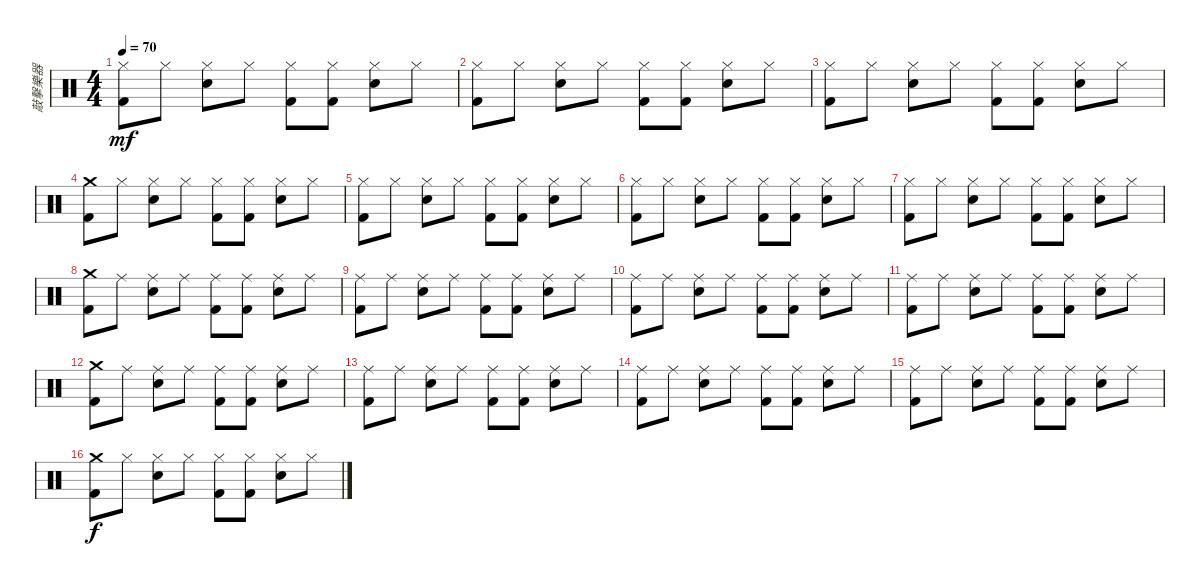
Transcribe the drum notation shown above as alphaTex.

\track ("敲擊樂器" "敲擊樂器") {instrument percussion}
\staff {score}
\articulation defaults
\ts (4 4)
\tempo 70
\clef neutral
\ks c
("Hi-Hat (closed)" "Kick (hit) 2").8{dy mf} "Hi-Hat (closed)".8 ("Hi-Hat (closed)" "Snare (hit) 2").8 "Hi-Hat (closed)".8 ("Hi-Hat (closed)" "Kick (hit) 2").8 ("Hi-Hat (closed)" "Kick (hit) 2").8 ("Hi-Hat (closed)" "Snare (hit) 2").8 "Hi-Hat (closed)".8 |
("Hi-Hat (closed)" "Kick (hit) 2").8 "Hi-Hat (closed)".8 ("Hi-Hat (closed)" "Snare (hit) 2").8 "Hi-Hat (closed)".8 ("Hi-Hat (closed)" "Kick (hit) 2").8 ("Hi-Hat (closed)" "Kick (hit) 2").8 ("Hi-Hat (closed)" "Snare (hit) 2").8 "Hi-Hat (closed)".8 |
("Hi-Hat (closed)" "Kick (hit) 2").8 "Hi-Hat (closed)".8 ("Hi-Hat (closed)" "Snare (hit) 2").8 "Hi-Hat (closed)".8 ("Hi-Hat (closed)" "Kick (hit) 2").8 ("Hi-Hat (closed)" "Kick (hit) 2").8 ("Hi-Hat (closed)" "Snare (hit) 2").8 "Hi-Hat (closed)".8 |
("Crash medium (hit)" "Kick (hit) 2").8 "Hi-Hat (closed)".8 ("Hi-Hat (closed)" "Snare (hit) 2").8 "Hi-Hat (closed)".8 ("Hi-Hat (closed)" "Kick (hit) 2").8 ("Hi-Hat (closed)" "Kick (hit) 2").8 ("Hi-Hat (closed)" "Snare (hit) 2").8 "Hi-Hat (closed)".8 |
("Hi-Hat (closed)" "Kick (hit) 2").8 "Hi-Hat (closed)".8 ("Hi-Hat (closed)" "Snare (hit) 2").8 "Hi-Hat (closed)".8 ("Hi-Hat (closed)" "Kick (hit) 2").8 ("Hi-Hat (closed)" "Kick (hit) 2").8 ("Hi-Hat (closed)" "Snare (hit) 2").8 "Hi-Hat (closed)".8 |
("Hi-Hat (closed)" "Kick (hit) 2").8 "Hi-Hat (closed)".8 ("Hi-Hat (closed)" "Snare (hit) 2").8 "Hi-Hat (closed)".8 ("Hi-Hat (closed)" "Kick (hit) 2").8 ("Hi-Hat (closed)" "Kick (hit) 2").8 ("Hi-Hat (closed)" "Snare (hit) 2").8 "Hi-Hat (closed)".8 |
("Hi-Hat (closed)" "Kick (hit) 2").8 "Hi-Hat (closed)".8 ("Hi-Hat (closed)" "Snare (hit) 2").8 "Hi-Hat (closed)".8 ("Hi-Hat (closed)" "Kick (hit) 2").8 ("Hi-Hat (closed)" "Kick (hit) 2").8 ("Hi-Hat (closed)" "Snare (hit) 2").8 "Hi-Hat (closed)".8 |
("Crash medium (hit)" "Kick (hit) 2").8 "Ride (middle)".8 ("Ride (middle)" "Snare (hit) 2").8 "Ride (middle)".8 ("Ride (middle)" "Kick (hit) 2").8 ("Ride (middle)" "Kick (hit) 2").8 ("Ride (middle)" "Snare (hit) 2").8 "Ride (middle)".8 |
("Ride (middle)" "Kick (hit) 2").8 "Ride (middle)".8 ("Ride (middle)" "Snare (hit) 2").8 "Ride (middle)".8 ("Ride (middle)" "Kick (hit) 2").8 ("Ride (middle)" "Kick (hit) 2").8 ("Ride (middle)" "Snare (hit) 2").8 "Ride (middle)".8 |
("Ride (middle)" "Kick (hit) 2").8 "Ride (middle)".8 ("Ride (middle)" "Snare (hit) 2").8 "Ride (middle)".8 ("Ride (middle)" "Kick (hit) 2").8 ("Ride (middle)" "Kick (hit) 2").8 ("Ride (middle)" "Snare (hit) 2").8 "Ride (middle)".8 |
("Ride (middle)" "Kick (hit) 2").8 "Ride (middle)".8 ("Ride (middle)" "Snare (hit) 2").8 "Ride (middle)".8 ("Ride (middle)" "Kick (hit) 2").8 ("Ride (middle)" "Kick (hit) 2").8 ("Ride (middle)" "Snare (hit) 2").8 "Ride (middle)".8 |
("Crash medium (hit)" "Kick (hit) 2").8 "Ride (middle)".8 ("Ride (middle)" "Snare (hit) 2").8 "Ride (middle)".8 ("Ride (middle)" "Kick (hit) 2").8 ("Ride (middle)" "Kick (hit) 2").8 ("Ride (middle)" "Snare (hit) 2").8 "Ride (middle)".8 |
("Ride (middle)" "Kick (hit) 2").8 "Ride (middle)".8 ("Ride (middle)" "Snare (hit) 2").8 "Ride (middle)".8 ("Ride (middle)" "Kick (hit) 2").8 ("Ride (middle)" "Kick (hit) 2").8 ("Ride (middle)" "Snare (hit) 2").8 "Ride (middle)".8 |
("Ride (middle)" "Kick (hit) 2").8 "Ride (middle)".8 ("Ride (middle)" "Snare (hit) 2").8 "Ride (middle)".8 ("Ride (middle)" "Kick (hit) 2").8 ("Ride (middle)" "Kick (hit) 2").8 ("Ride (middle)" "Snare (hit) 2").8 "Ride (middle)".8 |
("Ride (middle)" "Kick (hit) 2").8 "Ride (middle)".8 ("Ride (middle)" "Snare (hit) 2").8 "Ride (middle)".8 ("Ride (middle)" "Kick (hit) 2").8 ("Ride (middle)" "Kick (hit) 2").8 ("Ride (middle)" "Snare (hit) 2").8 "Ride (middle)".8 |
("Crash medium (hit)" "Kick (hit) 2").8{dy f} "Hi-Hat (closed)".8 ("Hi-Hat (closed)" "Snare (hit) 2").8 "Hi-Hat (closed)".8 ("Hi-Hat (closed)" "Kick (hit) 2").8 ("Hi-Hat (closed)" "Kick (hit) 2").8 ("Hi-Hat (closed)" "Snare (hit) 2").8 "Hi-Hat (closed)".8
